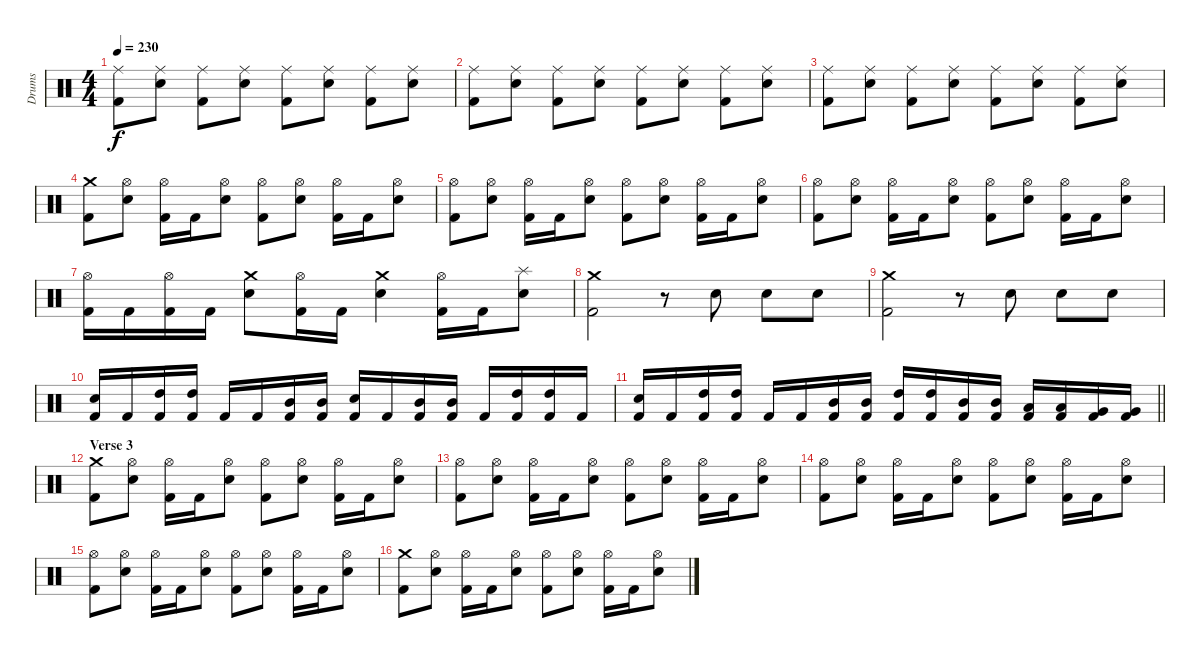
\track ("Drums" "Drums") {instrument percussion}
\staff {score}
\articulation defaults
\ts (4 4)
\tempo 230
\clef neutral
\ks c
("Ride (middle)" "Kick (hit) 2").8{dy f} ("Ride (middle)" "Electric Snare (hit)").8 ("Ride (middle)" "Kick (hit) 2").8 ("Ride (middle)" "Electric Snare (hit)").8 ("Ride (middle)" "Kick (hit) 2").8 ("Ride (middle)" "Electric Snare (hit)").8 ("Ride (middle)" "Kick (hit) 2").8 ("Ride (middle)" "Electric Snare (hit)").8 |
("Ride (middle)" "Kick (hit) 2").8 ("Ride (middle)" "Electric Snare (hit)").8 ("Ride (middle)" "Kick (hit) 2").8 ("Ride (middle)" "Electric Snare (hit)").8 ("Ride (middle)" "Kick (hit) 2").8 ("Ride (middle)" "Electric Snare (hit)").8 ("Ride (middle)" "Kick (hit) 2").8 ("Ride (middle)" "Electric Snare (hit)").8 |
("Ride (middle)" "Kick (hit) 2").8 ("Ride (middle)" "Electric Snare (hit)").8 ("Ride (middle)" "Kick (hit) 2").8 ("Ride (middle)" "Electric Snare (hit)").8 ("Ride (middle)" "Kick (hit) 2").8 ("Ride (middle)" "Electric Snare (hit)").8 ("Ride (middle)" "Kick (hit) 2").8 ("Ride (middle)" "Electric Snare (hit)").8 |
("Crash medium (hit)" "Kick (hit) 2").8 ("Hi-Hat (open)" "Electric Snare (hit)").8 ("Hi-Hat (open)" "Kick (hit) 2").16 "Kick (hit) 2".16 ("Hi-Hat (open)" "Electric Snare (hit)").8 ("Hi-Hat (open)" "Kick (hit) 2").8 ("Hi-Hat (open)" "Electric Snare (hit)").8 ("Hi-Hat (open)" "Kick (hit) 2").16 "Kick (hit) 2".16 ("Hi-Hat (open)" "Electric Snare (hit)").8 |
("Hi-Hat (open)" "Kick (hit) 2").8 ("Hi-Hat (open)" "Electric Snare (hit)").8 ("Hi-Hat (open)" "Kick (hit) 2").16 "Kick (hit) 2".16 ("Hi-Hat (open)" "Electric Snare (hit)").8 ("Hi-Hat (open)" "Kick (hit) 2").8 ("Hi-Hat (open)" "Electric Snare (hit)").8 ("Hi-Hat (open)" "Kick (hit) 2").16 "Kick (hit) 2".16 ("Hi-Hat (open)" "Electric Snare (hit)").8 |
("Hi-Hat (open)" "Kick (hit) 2").8 ("Hi-Hat (open)" "Electric Snare (hit)").8 ("Hi-Hat (open)" "Kick (hit) 2").16 "Kick (hit) 2".16 ("Hi-Hat (open)" "Electric Snare (hit)").8 ("Hi-Hat (open)" "Kick (hit) 2").8 ("Hi-Hat (open)" "Electric Snare (hit)").8 ("Hi-Hat (open)" "Kick (hit) 2").16 "Kick (hit) 2".16 ("Hi-Hat (open)" "Electric Snare (hit)").8 |
("Hi-Hat (open)" "Kick (hit) 2").16 "Kick (hit) 2".16 ("Hi-Hat (open)" "Kick (hit) 2").16 "Kick (hit) 2".16 ("Crash medium (hit)" "Electric Snare (hit)").8 ("Hi-Hat (open)" "Kick (hit) 2").16 "Kick (hit) 2".16 ("Crash medium (hit)" "Electric Snare (hit)").4 ("Hi-Hat (open)" "Kick (hit) 2").16 "Kick (hit) 2".16 ("Splash (hit)" "Electric Snare (hit)").8 |
("Crash medium (hit)" "Kick (hit) 2").2 r.8 "Electric Snare (hit)".8 "Electric Snare (hit)".8 "Electric Snare (hit)".8 |
("Crash medium (hit)" "Kick (hit) 2").2 r.8 "Electric Snare (hit)".8 "Electric Snare (hit)".8 "Electric Snare (hit)".8 |
("Electric Snare (hit)" "Kick (hit) 2").16 "Kick (hit) 2".16 ("High Tom (hit)" "Kick (hit) 2").16 ("High Tom (hit)" "Kick (hit) 2").16 "Kick (hit) 2".16 "Kick (hit) 2".16 ("Mid Tom (hit)" "Kick (hit) 2").16 ("Mid Tom (hit)" "Kick (hit) 2").16 ("Electric Snare (hit)" "Kick (hit) 2").16 "Kick (hit) 2".16 ("Mid Tom (hit)" "Kick (hit) 2").16 ("Mid Tom (hit)" "Kick (hit) 2").16 "Kick (hit) 2".16 ("High Tom (hit)" "Kick (hit) 2").16 ("High Tom (hit)" "Kick (hit) 2").16 "Kick (hit) 2".16 |
\barLineRight lightlight
("Electric Snare (hit)" "Kick (hit) 2").16 "Kick (hit) 2".16 ("High Tom (hit)" "Kick (hit) 2").16 ("High Tom (hit)" "Kick (hit) 2").16 "Kick (hit) 2".16 "Kick (hit) 2".16 ("Mid Tom (hit)" "Kick (hit) 2").16 ("Mid Tom (hit)" "Kick (hit) 2").16 ("High Tom (hit)" "Kick (hit) 2").16 ("High Tom (hit)" "Kick (hit) 2").16 ("Mid Tom (hit)" "Kick (hit) 2").16 ("Mid Tom (hit)" "Kick (hit) 2").16 ("Low Tom (hit)" "Kick (hit) 2").16 ("Low Tom (hit)" "Kick (hit) 2").16 ("Very Low Tom (hit)" "Kick (hit) 2").16 ("Very Low Tom (hit)" "Kick (hit) 2").16 |
\section ("" "Verse 3")
("Crash medium (hit)" "Kick (hit) 2").8 ("Hi-Hat (open)" "Electric Snare (hit)").8 ("Hi-Hat (open)" "Kick (hit) 2").16 "Kick (hit) 2".16 ("Hi-Hat (open)" "Electric Snare (hit)").8 ("Hi-Hat (open)" "Kick (hit) 2").8 ("Hi-Hat (open)" "Electric Snare (hit)").8 ("Hi-Hat (open)" "Kick (hit) 2").16 "Kick (hit) 2".16 ("Hi-Hat (open)" "Electric Snare (hit)").8 |
("Hi-Hat (open)" "Kick (hit) 2").8 ("Hi-Hat (open)" "Electric Snare (hit)").8 ("Hi-Hat (open)" "Kick (hit) 2").16 "Kick (hit) 2".16 ("Hi-Hat (open)" "Electric Snare (hit)").8 ("Hi-Hat (open)" "Kick (hit) 2").8 ("Hi-Hat (open)" "Electric Snare (hit)").8 ("Hi-Hat (open)" "Kick (hit) 2").16 "Kick (hit) 2".16 ("Hi-Hat (open)" "Electric Snare (hit)").8 |
("Hi-Hat (open)" "Kick (hit) 2").8 ("Hi-Hat (open)" "Electric Snare (hit)").8 ("Hi-Hat (open)" "Kick (hit) 2").16 "Kick (hit) 2".16 ("Hi-Hat (open)" "Electric Snare (hit)").8 ("Hi-Hat (open)" "Kick (hit) 2").8 ("Hi-Hat (open)" "Electric Snare (hit)").8 ("Hi-Hat (open)" "Kick (hit) 2").16 "Kick (hit) 2".16 ("Hi-Hat (open)" "Electric Snare (hit)").8 |
("Hi-Hat (open)" "Kick (hit) 2").8 ("Hi-Hat (open)" "Electric Snare (hit)").8 ("Hi-Hat (open)" "Kick (hit) 2").16 "Kick (hit) 2".16 ("Hi-Hat (open)" "Electric Snare (hit)").8 ("Hi-Hat (open)" "Kick (hit) 2").8 ("Hi-Hat (open)" "Electric Snare (hit)").8 ("Hi-Hat (open)" "Kick (hit) 2").16 "Kick (hit) 2".16 ("Hi-Hat (open)" "Electric Snare (hit)").8 |
("Crash medium (hit)" "Kick (hit) 2").8 ("Hi-Hat (open)" "Electric Snare (hit)").8 ("Hi-Hat (open)" "Kick (hit) 2").16 "Kick (hit) 2".16 ("Hi-Hat (open)" "Electric Snare (hit)").8 ("Hi-Hat (open)" "Kick (hit) 2").8 ("Hi-Hat (open)" "Electric Snare (hit)").8 ("Hi-Hat (open)" "Kick (hit) 2").16 "Kick (hit) 2".16 ("Hi-Hat (open)" "Electric Snare (hit)").8
